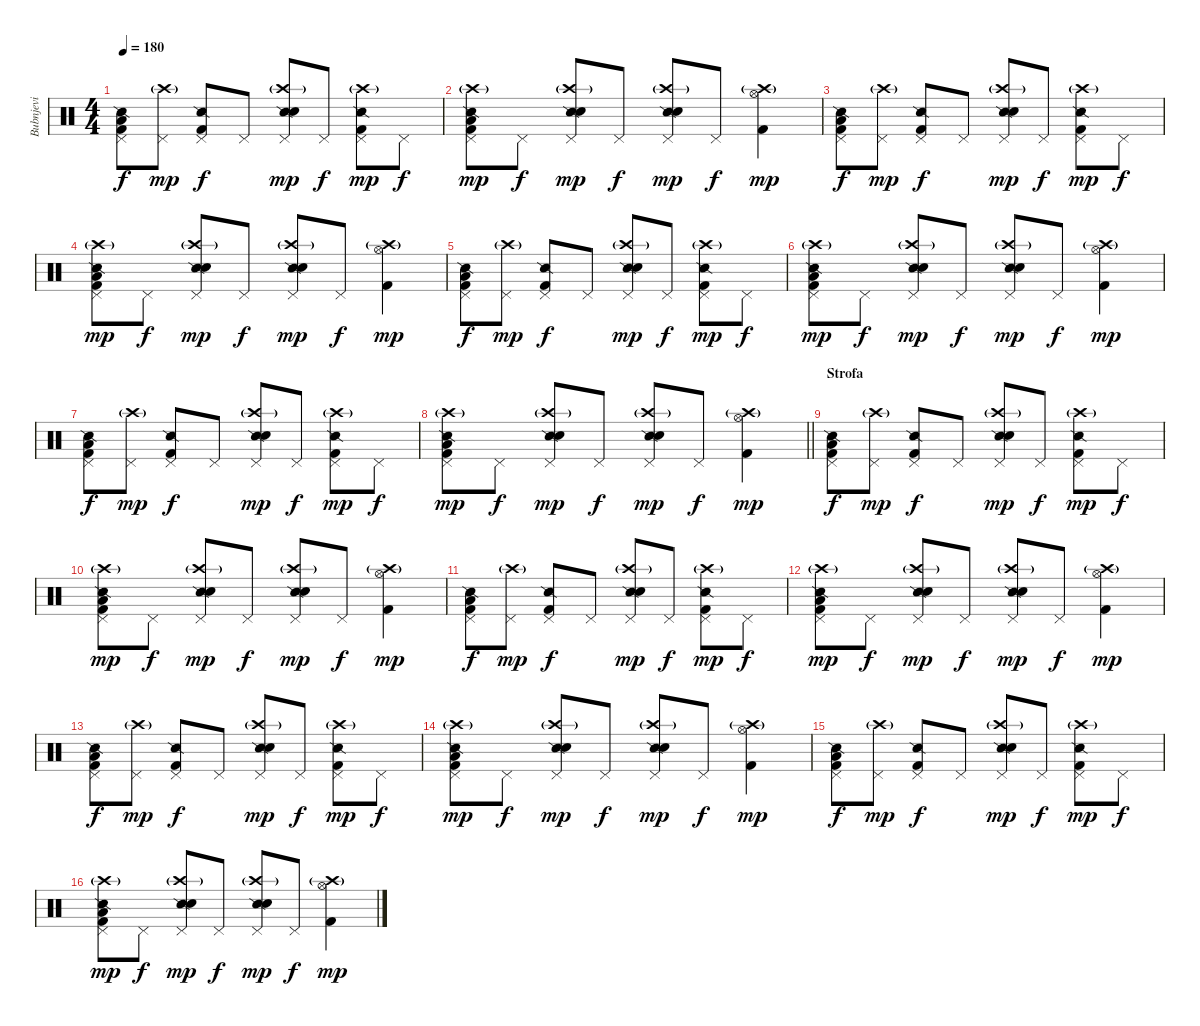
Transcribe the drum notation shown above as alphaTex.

\track ("Bubnjevi" "Bubnjevi") {instrument percussion}
\staff {score}
\articulation defaults
\ts (4 4)
\tempo 180
\clef neutral
\ks c
("Snare (side stick) 2" "Pedal Hi-Hat (hit)" "Low Tom (hit)" "Kick (hit) 2").8{dy f} ("Crash high (hit)"{g} "Pedal Hi-Hat (hit)").8{dy mp} ("Snare (side stick) 2" "Pedal Hi-Hat (hit)" "Kick (hit) 2").8{dy f} "Pedal Hi-Hat (hit)".8 ("Crash high (hit)"{g} "Snare (side stick) 2" "Pedal Hi-Hat (hit)" "Electric Snare (hit)").8{dy mp} "Pedal Hi-Hat (hit)".8{dy f} ("Crash high (hit)"{g} "Snare (side stick) 2" "Pedal Hi-Hat (hit)" "Kick (hit) 2").8{dy mp} "Pedal Hi-Hat (hit)".8{dy f} |
("Crash high (hit)"{g} "Snare (side stick) 2" "Pedal Hi-Hat (hit)" "Low Tom (hit)" "Kick (hit) 2").8{dy mp} "Pedal Hi-Hat (hit)".8{dy f} ("Crash high (hit)"{g} "Snare (side stick) 2" "Pedal Hi-Hat (hit)" "Hand Clap (hit)").8{dy mp} "Pedal Hi-Hat (hit)".8{dy f} ("Crash high (hit)"{g} "Snare (side stick) 2" "Pedal Hi-Hat (hit)" "Electric Snare (hit)").8{dy mp} "Pedal Hi-Hat (hit)".8{dy f} ("Crash high (hit)"{g} "Hi-Hat (open)" "Kick (hit) 2").4{dy mp} |
("Snare (side stick) 2" "Pedal Hi-Hat (hit)" "Low Tom (hit)" "Kick (hit) 2").8{dy f} ("Crash high (hit)"{g} "Pedal Hi-Hat (hit)").8{dy mp} ("Snare (side stick) 2" "Pedal Hi-Hat (hit)" "Kick (hit) 2").8{dy f} "Pedal Hi-Hat (hit)".8 ("Crash high (hit)"{g} "Snare (side stick) 2" "Pedal Hi-Hat (hit)" "Electric Snare (hit)").8{dy mp} "Pedal Hi-Hat (hit)".8{dy f} ("Crash high (hit)"{g} "Snare (side stick) 2" "Pedal Hi-Hat (hit)" "Kick (hit) 2").8{dy mp} "Pedal Hi-Hat (hit)".8{dy f} |
("Crash high (hit)"{g} "Snare (side stick) 2" "Pedal Hi-Hat (hit)" "Low Tom (hit)" "Kick (hit) 2").8{dy mp} "Pedal Hi-Hat (hit)".8{dy f} ("Crash high (hit)"{g} "Snare (side stick) 2" "Pedal Hi-Hat (hit)" "Hand Clap (hit)").8{dy mp} "Pedal Hi-Hat (hit)".8{dy f} ("Crash high (hit)"{g} "Snare (side stick) 2" "Pedal Hi-Hat (hit)" "Electric Snare (hit)").8{dy mp} "Pedal Hi-Hat (hit)".8{dy f} ("Crash high (hit)"{g} "Hi-Hat (open)" "Kick (hit) 2").4{dy mp} |
("Snare (side stick) 2" "Pedal Hi-Hat (hit)" "Low Tom (hit)" "Kick (hit) 2").8{dy f} ("Crash high (hit)"{g} "Pedal Hi-Hat (hit)").8{dy mp} ("Snare (side stick) 2" "Pedal Hi-Hat (hit)" "Kick (hit) 2").8{dy f} "Pedal Hi-Hat (hit)".8 ("Crash high (hit)"{g} "Snare (side stick) 2" "Pedal Hi-Hat (hit)" "Electric Snare (hit)").8{dy mp} "Pedal Hi-Hat (hit)".8{dy f} ("Crash high (hit)"{g} "Snare (side stick) 2" "Pedal Hi-Hat (hit)" "Kick (hit) 2").8{dy mp} "Pedal Hi-Hat (hit)".8{dy f} |
("Crash high (hit)"{g} "Snare (side stick) 2" "Pedal Hi-Hat (hit)" "Low Tom (hit)" "Kick (hit) 2").8{dy mp} "Pedal Hi-Hat (hit)".8{dy f} ("Crash high (hit)"{g} "Snare (side stick) 2" "Pedal Hi-Hat (hit)" "Hand Clap (hit)").8{dy mp} "Pedal Hi-Hat (hit)".8{dy f} ("Crash high (hit)"{g} "Snare (side stick) 2" "Pedal Hi-Hat (hit)" "Electric Snare (hit)").8{dy mp} "Pedal Hi-Hat (hit)".8{dy f} ("Crash high (hit)"{g} "Hi-Hat (open)" "Kick (hit) 2").4{dy mp} |
("Snare (side stick) 2" "Pedal Hi-Hat (hit)" "Low Tom (hit)" "Kick (hit) 2").8{dy f} ("Crash high (hit)"{g} "Pedal Hi-Hat (hit)").8{dy mp} ("Snare (side stick) 2" "Pedal Hi-Hat (hit)" "Kick (hit) 2").8{dy f} "Pedal Hi-Hat (hit)".8 ("Crash high (hit)"{g} "Snare (side stick) 2" "Pedal Hi-Hat (hit)" "Electric Snare (hit)").8{dy mp} "Pedal Hi-Hat (hit)".8{dy f} ("Crash high (hit)"{g} "Snare (side stick) 2" "Pedal Hi-Hat (hit)" "Kick (hit) 2").8{dy mp} "Pedal Hi-Hat (hit)".8{dy f} |
\barLineRight lightlight
("Crash high (hit)"{g} "Snare (side stick) 2" "Pedal Hi-Hat (hit)" "Low Tom (hit)" "Kick (hit) 2").8{dy mp} "Pedal Hi-Hat (hit)".8{dy f} ("Crash high (hit)"{g} "Snare (side stick) 2" "Pedal Hi-Hat (hit)" "Hand Clap (hit)").8{dy mp} "Pedal Hi-Hat (hit)".8{dy f} ("Crash high (hit)"{g} "Snare (side stick) 2" "Pedal Hi-Hat (hit)" "Electric Snare (hit)").8{dy mp} "Pedal Hi-Hat (hit)".8{dy f} ("Crash high (hit)"{g} "Hi-Hat (open)" "Kick (hit) 2").4{dy mp} |
\section ("" "Strofa")
("Snare (side stick) 2" "Pedal Hi-Hat (hit)" "Low Tom (hit)" "Kick (hit) 2").8{dy f} ("Crash high (hit)"{g} "Pedal Hi-Hat (hit)").8{dy mp} ("Snare (side stick) 2" "Pedal Hi-Hat (hit)" "Kick (hit) 2").8{dy f} "Pedal Hi-Hat (hit)".8 ("Crash high (hit)"{g} "Snare (side stick) 2" "Pedal Hi-Hat (hit)" "Electric Snare (hit)").8{dy mp} "Pedal Hi-Hat (hit)".8{dy f} ("Crash high (hit)"{g} "Snare (side stick) 2" "Pedal Hi-Hat (hit)" "Kick (hit) 2").8{dy mp} "Pedal Hi-Hat (hit)".8{dy f} |
("Crash high (hit)"{g} "Snare (side stick) 2" "Pedal Hi-Hat (hit)" "Low Tom (hit)" "Kick (hit) 2").8{dy mp} "Pedal Hi-Hat (hit)".8{dy f} ("Crash high (hit)"{g} "Snare (side stick) 2" "Pedal Hi-Hat (hit)" "Hand Clap (hit)").8{dy mp} "Pedal Hi-Hat (hit)".8{dy f} ("Crash high (hit)"{g} "Snare (side stick) 2" "Pedal Hi-Hat (hit)" "Electric Snare (hit)").8{dy mp} "Pedal Hi-Hat (hit)".8{dy f} ("Crash high (hit)"{g} "Hi-Hat (open)" "Kick (hit) 2").4{dy mp} |
("Snare (side stick) 2" "Pedal Hi-Hat (hit)" "Low Tom (hit)" "Kick (hit) 2").8{dy f} ("Crash high (hit)"{g} "Pedal Hi-Hat (hit)").8{dy mp} ("Snare (side stick) 2" "Pedal Hi-Hat (hit)" "Kick (hit) 2").8{dy f} "Pedal Hi-Hat (hit)".8 ("Crash high (hit)"{g} "Snare (side stick) 2" "Pedal Hi-Hat (hit)" "Electric Snare (hit)").8{dy mp} "Pedal Hi-Hat (hit)".8{dy f} ("Crash high (hit)"{g} "Snare (side stick) 2" "Pedal Hi-Hat (hit)" "Kick (hit) 2").8{dy mp} "Pedal Hi-Hat (hit)".8{dy f} |
("Crash high (hit)"{g} "Snare (side stick) 2" "Pedal Hi-Hat (hit)" "Low Tom (hit)" "Kick (hit) 2").8{dy mp} "Pedal Hi-Hat (hit)".8{dy f} ("Crash high (hit)"{g} "Snare (side stick) 2" "Pedal Hi-Hat (hit)" "Hand Clap (hit)").8{dy mp} "Pedal Hi-Hat (hit)".8{dy f} ("Crash high (hit)"{g} "Snare (side stick) 2" "Pedal Hi-Hat (hit)" "Electric Snare (hit)").8{dy mp} "Pedal Hi-Hat (hit)".8{dy f} ("Crash high (hit)"{g} "Hi-Hat (open)" "Kick (hit) 2").4{dy mp} |
("Snare (side stick) 2" "Pedal Hi-Hat (hit)" "Low Tom (hit)" "Kick (hit) 2").8{dy f} ("Crash high (hit)"{g} "Pedal Hi-Hat (hit)").8{dy mp} ("Snare (side stick) 2" "Pedal Hi-Hat (hit)" "Kick (hit) 2").8{dy f} "Pedal Hi-Hat (hit)".8 ("Crash high (hit)"{g} "Snare (side stick) 2" "Pedal Hi-Hat (hit)" "Electric Snare (hit)").8{dy mp} "Pedal Hi-Hat (hit)".8{dy f} ("Crash high (hit)"{g} "Snare (side stick) 2" "Pedal Hi-Hat (hit)" "Kick (hit) 2").8{dy mp} "Pedal Hi-Hat (hit)".8{dy f} |
("Crash high (hit)"{g} "Snare (side stick) 2" "Pedal Hi-Hat (hit)" "Low Tom (hit)" "Kick (hit) 2").8{dy mp} "Pedal Hi-Hat (hit)".8{dy f} ("Crash high (hit)"{g} "Snare (side stick) 2" "Pedal Hi-Hat (hit)" "Hand Clap (hit)").8{dy mp} "Pedal Hi-Hat (hit)".8{dy f} ("Crash high (hit)"{g} "Snare (side stick) 2" "Pedal Hi-Hat (hit)" "Electric Snare (hit)").8{dy mp} "Pedal Hi-Hat (hit)".8{dy f} ("Crash high (hit)"{g} "Hi-Hat (open)" "Kick (hit) 2").4{dy mp} |
("Snare (side stick) 2" "Pedal Hi-Hat (hit)" "Low Tom (hit)" "Kick (hit) 2").8{dy f} ("Crash high (hit)"{g} "Pedal Hi-Hat (hit)").8{dy mp} ("Snare (side stick) 2" "Pedal Hi-Hat (hit)" "Kick (hit) 2").8{dy f} "Pedal Hi-Hat (hit)".8 ("Crash high (hit)"{g} "Snare (side stick) 2" "Pedal Hi-Hat (hit)" "Electric Snare (hit)").8{dy mp} "Pedal Hi-Hat (hit)".8{dy f} ("Crash high (hit)"{g} "Snare (side stick) 2" "Pedal Hi-Hat (hit)" "Kick (hit) 2").8{dy mp} "Pedal Hi-Hat (hit)".8{dy f} |
("Crash high (hit)"{g} "Snare (side stick) 2" "Pedal Hi-Hat (hit)" "Low Tom (hit)" "Kick (hit) 2").8{dy mp} "Pedal Hi-Hat (hit)".8{dy f} ("Crash high (hit)"{g} "Snare (side stick) 2" "Pedal Hi-Hat (hit)" "Hand Clap (hit)").8{dy mp} "Pedal Hi-Hat (hit)".8{dy f} ("Crash high (hit)"{g} "Snare (side stick) 2" "Pedal Hi-Hat (hit)" "Electric Snare (hit)").8{dy mp} "Pedal Hi-Hat (hit)".8{dy f} ("Crash high (hit)"{g} "Hi-Hat (open)" "Kick (hit) 2").4{dy mp}
